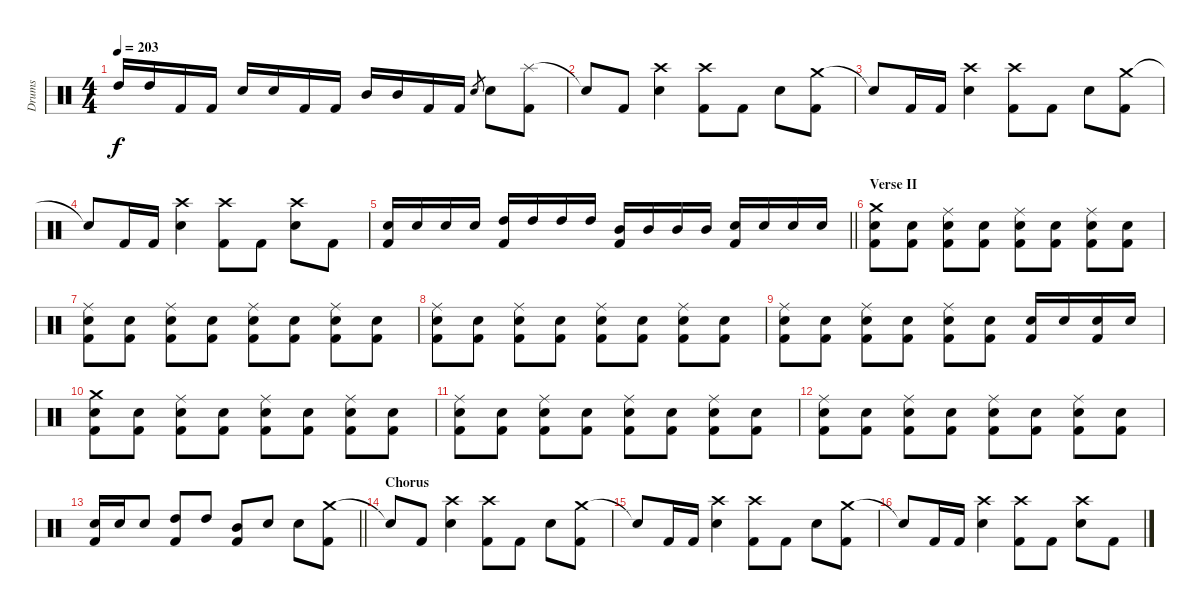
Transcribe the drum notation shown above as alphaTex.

\track ("Drums" "Drums") {instrument percussion}
\staff {score}
\articulation defaults
\ts (4 4)
\tempo 203
\clef neutral
\ks c "High Tom (hit)".16{dy f} "High Tom (hit)".16 "Kick (hit) 2".16 "Kick (hit) 2".16 "Electric Snare (hit)".16 "Electric Snare (hit)".16 "Kick (hit) 2".16 "Kick (hit) 2".16 "Mid Tom (hit)".16 "Mid Tom (hit)".16 "Kick (hit) 2".16 "Kick (hit) 2".16 "Electric Snare (hit)".8{gr} "Electric Snare (hit)".8
("Splash (hit)" "Kick (hit) 2").8 |
"Snare (hit)"{t}.8 "Kick (hit) 2".8 ("Crash high (hit)" "Electric Snare (hit)").4 ("Crash high (hit)" "Kick (hit) 2").8 "Kick (hit) 2".8 "Electric Snare (hit)".8 ("Crash medium (hit)" "Kick (hit) 2").8 |
"Snare (hit)"{t}.8 "Kick (hit) 2".16 "Kick (hit) 2".16 ("Crash high (hit)" "Electric Snare (hit)").4 ("Crash high (hit)" "Kick (hit) 2").8 "Kick (hit) 2".8 "Electric Snare (hit)".8 ("Crash medium (hit)" "Kick (hit) 2").8 |
"Snare (hit)"{t}.8 "Kick (hit) 2".16 "Kick (hit) 2".16 ("Crash high (hit)" "Electric Snare (hit)").4 ("Crash high (hit)" "Kick (hit) 2").8 "Kick (hit) 2".8 ("Crash high (hit)" "Electric Snare (hit)").8 "Kick (hit) 2".8 |
\barLineRight lightlight
("Electric Snare (hit)" "Kick (hit) 2").16 "Electric Snare (hit)".16 "Electric Snare (hit)".16 "Electric Snare (hit)".16 ("High Tom (hit)" "Kick (hit) 2").16 "High Tom (hit)".16 "High Tom (hit)".16 "High Tom (hit)".16 ("Mid Tom (hit)" "Kick (hit) 2").16 "Mid Tom (hit)".16 "Mid Tom (hit)".16 "Mid Tom (hit)".16 ("Electric Snare (hit)" "Kick (hit) 2").16 "Electric Snare (hit)".16 "Electric Snare (hit)".16 "Electric Snare (hit)".16 |
\section ("" "Verse II")
("Crash medium (hit)" "Electric Snare (hit)" "Kick (hit) 2").8 ("Electric Snare (hit)" "Kick (hit) 2").8 ("Ride (middle)" "Electric Snare (hit)" "Kick (hit) 2").8 ("Electric Snare (hit)" "Kick (hit) 2").8 ("Ride (middle)" "Electric Snare (hit)" "Kick (hit) 2").8 ("Electric Snare (hit)" "Kick (hit) 2").8 ("Ride (middle)" "Electric Snare (hit)" "Kick (hit) 2").8 ("Electric Snare (hit)" "Kick (hit) 2").8 |
("Ride (middle)" "Electric Snare (hit)" "Kick (hit) 2").8 ("Electric Snare (hit)" "Kick (hit) 2").8 ("Ride (middle)" "Electric Snare (hit)" "Kick (hit) 2").8 ("Electric Snare (hit)" "Kick (hit) 2").8 ("Ride (middle)" "Electric Snare (hit)" "Kick (hit) 2").8 ("Electric Snare (hit)" "Kick (hit) 2").8 ("Ride (middle)" "Electric Snare (hit)" "Kick (hit) 2").8 ("Electric Snare (hit)" "Kick (hit) 2").8 |
("Ride (middle)" "Electric Snare (hit)" "Kick (hit) 2").8 ("Electric Snare (hit)" "Kick (hit) 2").8 ("Ride (middle)" "Electric Snare (hit)" "Kick (hit) 2").8 ("Electric Snare (hit)" "Kick (hit) 2").8 ("Ride (middle)" "Electric Snare (hit)" "Kick (hit) 2").8 ("Electric Snare (hit)" "Kick (hit) 2").8 ("Ride (middle)" "Electric Snare (hit)" "Kick (hit) 2").8 ("Electric Snare (hit)" "Kick (hit) 2").8 |
("Ride (middle)" "Electric Snare (hit)" "Kick (hit) 2").8 ("Electric Snare (hit)" "Kick (hit) 2").8 ("Ride (middle)" "Electric Snare (hit)" "Kick (hit) 2").8 ("Electric Snare (hit)" "Kick (hit) 2").8 ("Ride (middle)" "Electric Snare (hit)" "Kick (hit) 2").8 ("Electric Snare (hit)" "Kick (hit) 2").8 ("Electric Snare (hit)" "Kick (hit) 2").16 "Electric Snare (hit)".16 ("Electric Snare (hit)" "Kick (hit) 2").16 "Electric Snare (hit)".16 |
("Crash medium (hit)" "Electric Snare (hit)" "Kick (hit) 2").8 ("Electric Snare (hit)" "Kick (hit) 2").8 ("Ride (middle)" "Electric Snare (hit)" "Kick (hit) 2").8 ("Electric Snare (hit)" "Kick (hit) 2").8 ("Ride (middle)" "Electric Snare (hit)" "Kick (hit) 2").8 ("Electric Snare (hit)" "Kick (hit) 2").8 ("Ride (middle)" "Electric Snare (hit)" "Kick (hit) 2").8 ("Electric Snare (hit)" "Kick (hit) 2").8 |
("Ride (middle)" "Electric Snare (hit)" "Kick (hit) 2").8 ("Electric Snare (hit)" "Kick (hit) 2").8 ("Ride (middle)" "Electric Snare (hit)" "Kick (hit) 2").8 ("Electric Snare (hit)" "Kick (hit) 2").8 ("Ride (middle)" "Electric Snare (hit)" "Kick (hit) 2").8 ("Electric Snare (hit)" "Kick (hit) 2").8 ("Ride (middle)" "Electric Snare (hit)" "Kick (hit) 2").8 ("Electric Snare (hit)" "Kick (hit) 2").8 |
("Ride (middle)" "Electric Snare (hit)" "Kick (hit) 2").8 ("Electric Snare (hit)" "Kick (hit) 2").8 ("Ride (middle)" "Electric Snare (hit)" "Kick (hit) 2").8 ("Electric Snare (hit)" "Kick (hit) 2").8 ("Ride (middle)" "Electric Snare (hit)" "Kick (hit) 2").8 ("Electric Snare (hit)" "Kick (hit) 2").8 ("Ride (middle)" "Electric Snare (hit)" "Kick (hit) 2").8 ("Electric Snare (hit)" "Kick (hit) 2").8 |
\barLineRight lightlight
("Electric Snare (hit)" "Kick (hit) 2").16 "Electric Snare (hit)".16 "Electric Snare (hit)".8 ("High Tom (hit)" "Kick (hit) 2").8 "High Tom (hit)".8 ("Mid Tom (hit)" "Kick (hit) 2").8 "Electric Snare (hit)".8 "Electric Snare (hit)".8 ("Crash medium (hit)" "Kick (hit) 2").8 |
\section ("" "Chorus")
"Snare (hit)"{t}.8 "Kick (hit) 2".8 ("Crash high (hit)" "Electric Snare (hit)").4 ("Crash high (hit)" "Kick (hit) 2").8 "Kick (hit) 2".8 "Electric Snare (hit)".8 ("Crash medium (hit)" "Kick (hit) 2").8 |
"Snare (hit)"{t}.8 "Kick (hit) 2".16 "Kick (hit) 2".16 ("Crash high (hit)" "Electric Snare (hit)").4 ("Crash high (hit)" "Kick (hit) 2").8 "Kick (hit) 2".8 "Electric Snare (hit)".8 ("Crash medium (hit)" "Kick (hit) 2").8 |
"Snare (hit)"{t}.8 "Kick (hit) 2".16 "Kick (hit) 2".16 ("Crash high (hit)" "Electric Snare (hit)").4 ("Crash high (hit)" "Kick (hit) 2").8 "Kick (hit) 2".8 ("Crash high (hit)" "Electric Snare (hit)").8 "Kick (hit) 2".8
